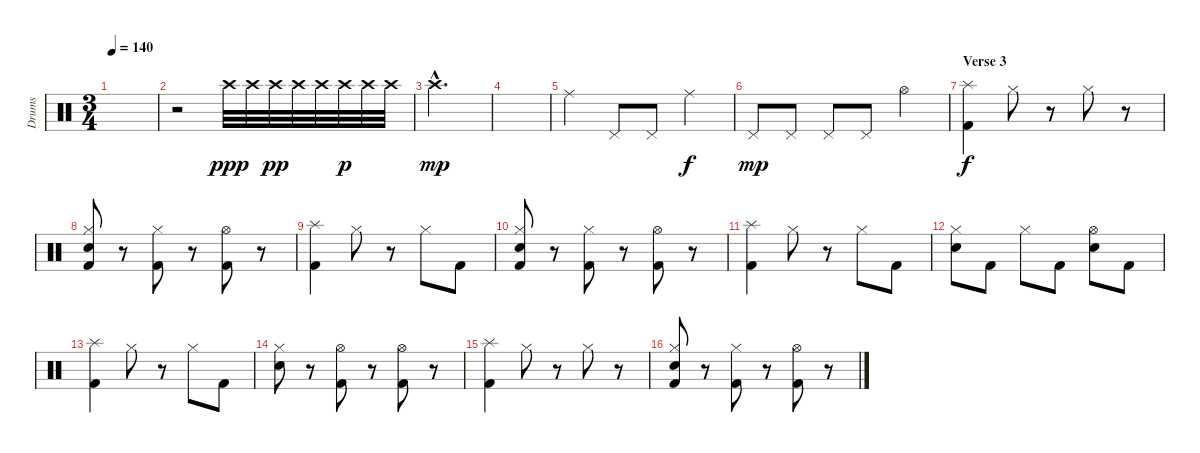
\track ("Drums" "Drums") {instrument percussion}
\staff {score}
\articulation defaults
\ts (3 4)
\tempo 140
\clef neutral
\ks c
|
r.2 "Crash high (hit)".32{dy ppp} "Crash high (hit)".32 "Crash high (hit)".32{dy pp} "Crash high (hit)".32 "Crash high (hit)".32 "Crash high (hit)".32{dy p} "Crash high (hit)".32 "Crash high (hit)".32 |
"Crash high (hit)"{hac}.2{d dy mp} |
|
"Ride (middle)".4 "Pedal Hi-Hat (hit)".8 "Pedal Hi-Hat (hit)".8 "Ride (middle)".4{dy f} |
"Pedal Hi-Hat (hit)".8{dy mp} "Pedal Hi-Hat (hit)".8 "Pedal Hi-Hat (hit)".8 "Pedal Hi-Hat (hit)".8 "Hi-Hat (open)".4 |
\section ("" "Verse 3")
("Splash (hit)" "Kick (hit) 2").4{dy f} "Hi-Hat (closed)".8 r.8 "Hi-Hat (closed)".8 r.8 |
("Hi-Hat (closed)" "Snare (hit) 2" "Kick (hit) 2").8 r.8 ("Hi-Hat (closed)" "Kick (hit) 2").8 r.8 ("Hi-Hat (open)" "Kick (hit) 2").8 r.8 |
("Splash (hit)" "Kick (hit) 2").4 "Hi-Hat (closed)".8 r.8 "Hi-Hat (closed)".8 "Kick (hit) 2".8 |
("Hi-Hat (closed)" "Snare (hit) 2" "Kick (hit) 2").8 r.8 ("Hi-Hat (closed)" "Kick (hit) 2").8 r.8 ("Hi-Hat (open)" "Kick (hit) 2").8 r.8 |
("Splash (hit)" "Kick (hit) 2").4 "Hi-Hat (closed)".8 r.8 "Hi-Hat (closed)".8 "Kick (hit) 2".8 |
("Hi-Hat (closed)" "Snare (hit) 2").8 "Kick (hit) 2".8 "Hi-Hat (closed)".8 "Kick (hit) 2".8 ("Hi-Hat (open)" "Snare (hit) 2").8 "Kick (hit) 2".8 |
("Splash (hit)" "Kick (hit) 2").4 "Hi-Hat (closed)".8 r.8 "Hi-Hat (closed)".8 "Kick (hit) 2".8 |
("Hi-Hat (closed)" "Snare (hit) 2").8 r.8 ("Hi-Hat (open)" "Kick (hit) 2").8 r.8 ("Hi-Hat (open)" "Kick (hit) 2").8 r.8 |
\section ("" "")
("Splash (hit)" "Kick (hit) 2").4 "Hi-Hat (closed)".8 r.8 "Hi-Hat (closed)".8 r.8 |
("Hi-Hat (closed)" "Snare (hit) 2" "Kick (hit) 2").8 r.8 ("Hi-Hat (closed)" "Kick (hit) 2").8 r.8 ("Hi-Hat (open)" "Kick (hit) 2").8 r.8
